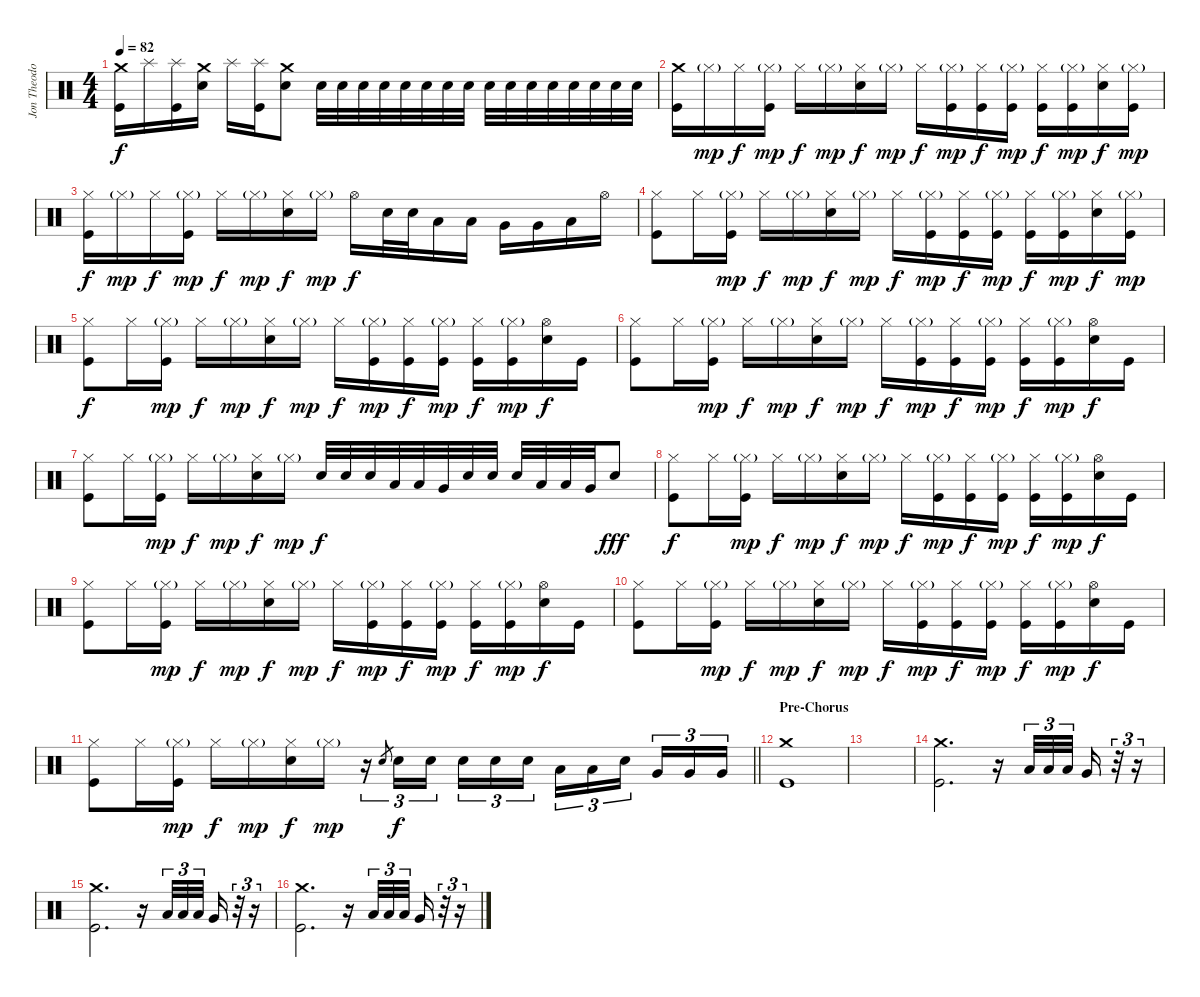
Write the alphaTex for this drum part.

\track ("Jon Theodore - Drums" "Jon Theodo") {instrument percussion}
\staff {score}
\articulation defaults
\ts (4 4)
\tempo 82
\clef neutral
\ks c
("Crash medium (hit)" "Kick (hit)").16{dy f} "Splash (hit)".16 ("Splash (hit)" "Kick (hit)").16 ("Crash medium (hit)" "Snare (hit) 2").16 "Splash (hit)".16 ("Splash (hit)" "Kick (hit)").16 ("Crash medium (hit)" "Snare (hit) 2").8 "Snare (hit) 2".32 "Snare (hit) 2".32 "Snare (hit) 2".32 "Snare (hit) 2".32 "Snare (hit) 2".32 "Snare (hit) 2".32 "Snare (hit) 2".32 "Snare (hit) 2".32 "Snare (hit) 2".32 "Snare (hit) 2".32 "Snare (hit) 2".32 "Snare (hit) 2".32 "Snare (hit) 2".32 "Snare (hit) 2".32 "Snare (hit) 2".32 "Snare (hit) 2".32 |
("Crash medium (hit)" "Kick (hit)").16 "Hi-Hat (closed)"{g}.16{dy mp} "Hi-Hat (closed)".16{dy f} ("Hi-Hat (closed)"{g} "Kick (hit)").16{dy mp} "Hi-Hat (closed)".16{dy f} "Hi-Hat (closed)"{g}.16{dy mp} ("Hi-Hat (closed)" "Snare (hit) 2").16{dy f} "Hi-Hat (closed)"{g}.16{dy mp} "Hi-Hat (closed)".16{dy f} ("Hi-Hat (closed)"{g} "Kick (hit)").16{dy mp} ("Hi-Hat (closed)" "Kick (hit)").16{dy f} ("Hi-Hat (closed)"{g} "Kick (hit)").16{dy mp} ("Hi-Hat (closed)" "Kick (hit)").16{dy f} ("Hi-Hat (closed)"{g} "Kick (hit)").16{dy mp} ("Hi-Hat (closed)" "Snare (hit) 2").16{dy f} ("Hi-Hat (closed)"{g} "Kick (hit)").16{dy mp} |
("Hi-Hat (closed)" "Kick (hit)").16{dy f} "Hi-Hat (closed)"{g}.16{dy mp} "Hi-Hat (closed)".16{dy f} ("Hi-Hat (closed)"{g} "Kick (hit)").16{dy mp} "Hi-Hat (closed)".16{dy f} "Hi-Hat (closed)"{g}.16{dy mp} ("Hi-Hat (closed)" "Snare (hit) 2").16{dy f} "Hi-Hat (closed)"{g}.16{dy mp} "Hi-Hat (open)".16{dy f} "Snare (hit) 2".32 "Snare (hit) 2".32 "Low Tom (hit)".16 "Low Tom (hit)".16 "Very Low Tom (hit)".16 "Very Low Tom (hit)".16 "Low Tom (hit)".16 "Hi-Hat (open)".16 |
("Hi-Hat (closed)" "Kick (hit)").8 "Hi-Hat (closed)".16 ("Hi-Hat (closed)"{g} "Kick (hit)").16{dy mp} "Hi-Hat (closed)".16{dy f} "Hi-Hat (closed)"{g}.16{dy mp} ("Hi-Hat (closed)" "Snare (hit) 2").16{dy f} "Hi-Hat (closed)"{g}.16{dy mp} "Hi-Hat (closed)".16{dy f} ("Hi-Hat (closed)"{g} "Kick (hit)").16{dy mp} ("Hi-Hat (closed)" "Kick (hit)").16{dy f} ("Hi-Hat (closed)"{g} "Kick (hit)").16{dy mp} ("Hi-Hat (closed)" "Kick (hit)").16{dy f} ("Hi-Hat (closed)"{g} "Kick (hit)").16{dy mp} ("Hi-Hat (closed)" "Snare (hit) 2").16{dy f} ("Hi-Hat (closed)"{g} "Kick (hit)").16{dy mp} |
("Hi-Hat (closed)" "Kick (hit)").8{dy f} "Hi-Hat (closed)".16 ("Hi-Hat (closed)"{g} "Kick (hit)").16{dy mp} "Hi-Hat (closed)".16{dy f} "Hi-Hat (closed)"{g}.16{dy mp} ("Hi-Hat (closed)" "Snare (hit) 2").16{dy f} "Hi-Hat (closed)"{g}.16{dy mp} "Hi-Hat (closed)".16{dy f} ("Hi-Hat (closed)"{g} "Kick (hit)").16{dy mp} ("Hi-Hat (closed)" "Kick (hit)").16{dy f} ("Hi-Hat (closed)"{g} "Kick (hit)").16{dy mp} ("Hi-Hat (closed)" "Kick (hit)").16{dy f} ("Hi-Hat (closed)"{g} "Kick (hit)").16{dy mp} ("Hi-Hat (open)" "Snare (hit) 2").16{dy f} "Kick (hit)".16 |
("Hi-Hat (closed)" "Kick (hit)").8 "Hi-Hat (closed)".16 ("Hi-Hat (closed)"{g} "Kick (hit)").16{dy mp} "Hi-Hat (closed)".16{dy f} "Hi-Hat (closed)"{g}.16{dy mp} ("Hi-Hat (closed)" "Snare (hit) 2").16{dy f} "Hi-Hat (closed)"{g}.16{dy mp} "Hi-Hat (closed)".16{dy f} ("Hi-Hat (closed)"{g} "Kick (hit)").16{dy mp} ("Hi-Hat (closed)" "Kick (hit)").16{dy f} ("Hi-Hat (closed)"{g} "Kick (hit)").16{dy mp} ("Hi-Hat (closed)" "Kick (hit)").16{dy f} ("Hi-Hat (closed)"{g} "Kick (hit)").16{dy mp} ("Hi-Hat (open)" "Snare (hit) 2").16{dy f} "Kick (hit)".16 |
("Hi-Hat (closed)" "Kick (hit)").8 "Hi-Hat (closed)".16 ("Hi-Hat (closed)"{g} "Kick (hit)").16{dy mp} "Hi-Hat (closed)".16{dy f} "Hi-Hat (closed)"{g}.16{dy mp} ("Hi-Hat (closed)" "Snare (hit) 2").16{dy f} "Hi-Hat (closed)"{g}.16{dy mp} "Snare (hit) 2".32{dy f} "Snare (hit) 2".32 "Snare (hit) 2".32 "Low Tom (hit)".32 "Low Tom (hit)".32 "Very Low Tom (hit)".32 "Snare (hit) 2".32 "Snare (hit) 2".32 "Snare (hit) 2".32 "Low Tom (hit)".32 "Low Tom (hit)".32 "Very Low Tom (hit)".32 "Snare (hit) 2".8{dy fff} |
("Hi-Hat (closed)" "Kick (hit)").8{dy f} "Hi-Hat (closed)".16 ("Hi-Hat (closed)"{g} "Kick (hit)").16{dy mp} "Hi-Hat (closed)".16{dy f} "Hi-Hat (closed)"{g}.16{dy mp} ("Hi-Hat (closed)" "Snare (hit) 2").16{dy f} "Hi-Hat (closed)"{g}.16{dy mp} "Hi-Hat (closed)".16{dy f} ("Hi-Hat (closed)"{g} "Kick (hit)").16{dy mp} ("Hi-Hat (closed)" "Kick (hit)").16{dy f} ("Hi-Hat (closed)"{g} "Kick (hit)").16{dy mp} ("Hi-Hat (closed)" "Kick (hit)").16{dy f} ("Hi-Hat (closed)"{g} "Kick (hit)").16{dy mp} ("Hi-Hat (open)" "Snare (hit) 2").16{dy f} "Kick (hit)".16 |
("Hi-Hat (closed)" "Kick (hit)").8 "Hi-Hat (closed)".16 ("Hi-Hat (closed)"{g} "Kick (hit)").16{dy mp} "Hi-Hat (closed)".16{dy f} "Hi-Hat (closed)"{g}.16{dy mp} ("Hi-Hat (closed)" "Snare (hit) 2").16{dy f} "Hi-Hat (closed)"{g}.16{dy mp} "Hi-Hat (closed)".16{dy f} ("Hi-Hat (closed)"{g} "Kick (hit)").16{dy mp} ("Hi-Hat (closed)" "Kick (hit)").16{dy f} ("Hi-Hat (closed)"{g} "Kick (hit)").16{dy mp} ("Hi-Hat (closed)" "Kick (hit)").16{dy f} ("Hi-Hat (closed)"{g} "Kick (hit)").16{dy mp} ("Hi-Hat (open)" "Snare (hit) 2").16{dy f} "Kick (hit)".16 |
("Hi-Hat (closed)" "Kick (hit)").8 "Hi-Hat (closed)".16 ("Hi-Hat (closed)"{g} "Kick (hit)").16{dy mp} "Hi-Hat (closed)".16{dy f} "Hi-Hat (closed)"{g}.16{dy mp} ("Hi-Hat (closed)" "Snare (hit) 2").16{dy f} "Hi-Hat (closed)"{g}.16{dy mp} "Hi-Hat (closed)".16{dy f} ("Hi-Hat (closed)"{g} "Kick (hit)").16{dy mp} ("Hi-Hat (closed)" "Kick (hit)").16{dy f} ("Hi-Hat (closed)"{g} "Kick (hit)").16{dy mp} ("Hi-Hat (closed)" "Kick (hit)").16{dy f} ("Hi-Hat (closed)"{g} "Kick (hit)").16{dy mp} ("Hi-Hat (open)" "Snare (hit) 2").16{dy f} "Kick (hit)".16 |
\barLineRight lightlight
("Hi-Hat (closed)" "Kick (hit)").8 "Hi-Hat (closed)".16 ("Hi-Hat (closed)"{g} "Kick (hit)").16{dy mp} "Hi-Hat (closed)".16{dy f} "Hi-Hat (closed)"{g}.16{dy mp} ("Hi-Hat (closed)" "Snare (hit) 2").16{dy f} "Hi-Hat (closed)"{g}.16{dy mp} r.16{tu (3 2)} "Snare (hit) 2".8{gr} "Snare (hit) 2".16{tu (3 2) dy f} "Snare (hit) 2".16{tu (3 2) beam splitsecondary} "Snare (hit) 2".16{tu (3 2)} "Snare (hit) 2".16{tu (3 2)} "Snare (hit) 2".16{tu (3 2)} "Low Tom (hit)".16{tu (3 2)} "Low Tom (hit)".16{tu (3 2)} "Snare (hit) 2".16{tu (3 2) beam splitsecondary} "Very Low Tom (hit)".16{tu (3 2)} "Very Low Tom (hit)".16{tu (3 2)} "Very Low Tom (hit)".16{tu (3 2)} |
\section ("" "Pre-Chorus")
("Crash medium (hit)" "Kick (hit)").1 |
|
("Crash medium (hit)" "Kick (hit)").2{d} r.16 "Low Tom (hit)".32{tu (3 2)} "Low Tom (hit)".32{tu (3 2)} "Low Tom (hit)".32{tu (3 2) beam splitsecondary} "Very Low Tom (hit)".16 r.32{tu (3 2)} r.16{tu (3 2)} |
("Crash medium (hit)" "Kick (hit)").2{d} r.16 "Low Tom (hit)".32{tu (3 2)} "Low Tom (hit)".32{tu (3 2)} "Low Tom (hit)".32{tu (3 2) beam splitsecondary} "Very Low Tom (hit)".16 r.32{tu (3 2)} r.16{tu (3 2)} |
("Crash medium (hit)" "Kick (hit)").2{d} r.16 "Low Tom (hit)".32{tu (3 2)} "Low Tom (hit)".32{tu (3 2)} "Low Tom (hit)".32{tu (3 2) beam splitsecondary} "Very Low Tom (hit)".16 r.32{tu (3 2)} r.16{tu (3 2)}
